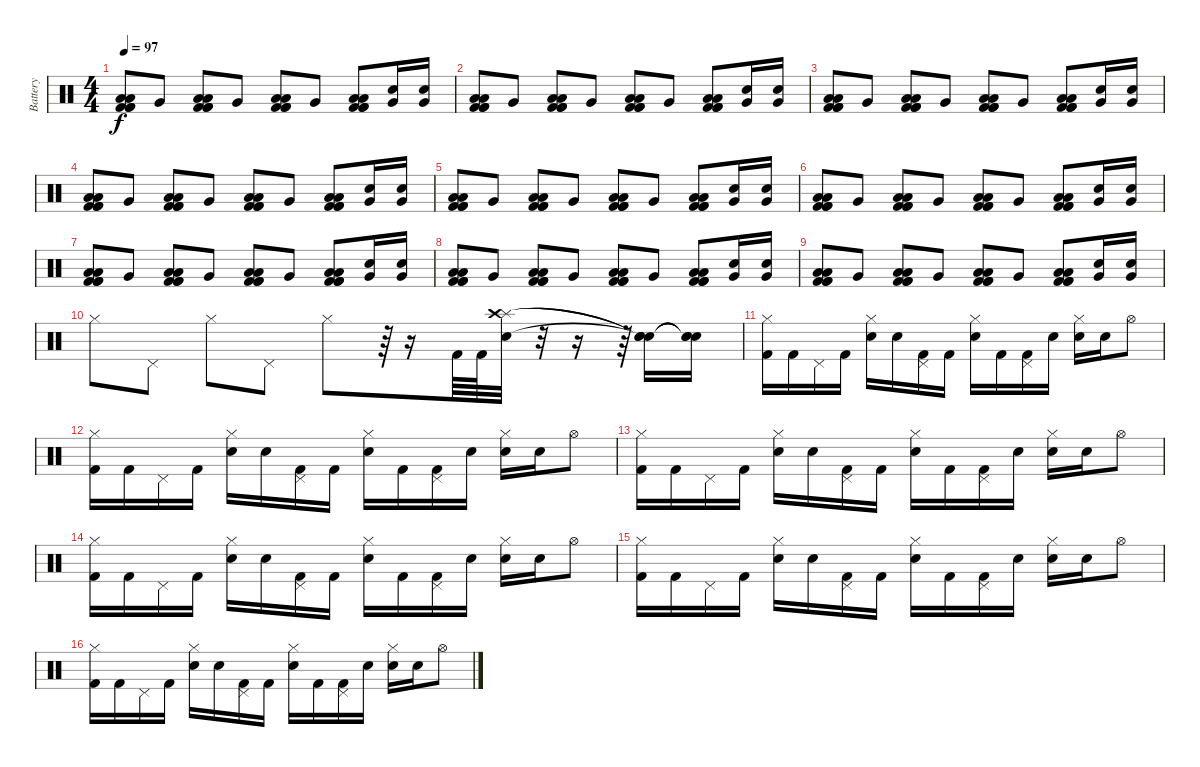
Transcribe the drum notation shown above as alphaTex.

\track ("Battery" "Battery") {instrument percussion}
\staff {score}
\articulation defaults
\ts (4 4)
\tempo 97
\clef neutral
\ks c
("Low Tom (hit)" "Kick (hit) 2" "Low Tom (hit)" "Kick (hit) 2" "Kick (hit) 2").8{dy f} "Very Low Tom (hit)".8 ("Low Floor Tom (hit)" "Kick (hit) 2" "Low Tom (hit)" "Kick (hit) 2" "Kick (hit) 2").8 "Very Low Tom (hit)".8 ("Low Tom (hit)" "Kick (hit) 2" "Low Tom (hit)" "Kick (hit) 2" "Kick (hit) 2").8 "Very Low Tom (hit)".8 ("Low Tom (hit)" "Kick (hit) 2" "Low Tom (hit)" "Kick (hit) 2" "Kick (hit) 2").8 ("Very Low Tom (hit)" "Snare (hit) 2").16 ("Very Low Tom (hit)" "Snare (hit) 2").16 |
("Low Tom (hit)" "Kick (hit) 2" "Low Tom (hit)" "Kick (hit) 2" "Kick (hit) 2").8 "Very Low Tom (hit)".8 ("Low Floor Tom (hit)" "Kick (hit) 2" "Low Tom (hit)" "Kick (hit) 2" "Kick (hit) 2").8 "Very Low Tom (hit)".8 ("Low Tom (hit)" "Kick (hit) 2" "Low Tom (hit)" "Kick (hit) 2" "Kick (hit) 2").8 "Very Low Tom (hit)".8 ("Low Tom (hit)" "Kick (hit) 2" "Low Tom (hit)" "Kick (hit) 2" "Kick (hit) 2").8 ("Very Low Tom (hit)" "Snare (hit) 2").16 ("Very Low Tom (hit)" "Snare (hit) 2").16 |
("Low Tom (hit)" "Kick (hit) 2" "Low Tom (hit)" "Kick (hit) 2" "Kick (hit) 2").8 "Very Low Tom (hit)".8 ("Low Floor Tom (hit)" "Kick (hit) 2" "Low Tom (hit)" "Kick (hit) 2" "Kick (hit) 2").8 "Very Low Tom (hit)".8 ("Low Tom (hit)" "Kick (hit) 2" "Low Tom (hit)" "Kick (hit) 2" "Kick (hit) 2").8 "Very Low Tom (hit)".8 ("Low Tom (hit)" "Kick (hit) 2" "Low Tom (hit)" "Kick (hit) 2" "Kick (hit) 2").8 ("Very Low Tom (hit)" "Snare (hit) 2").16 ("Very Low Tom (hit)" "Snare (hit) 2").16 |
("Low Tom (hit)" "Kick (hit) 2" "Low Tom (hit)" "Kick (hit) 2" "Kick (hit) 2").8 "Very Low Tom (hit)".8 ("Low Floor Tom (hit)" "Kick (hit) 2" "Low Tom (hit)" "Kick (hit) 2" "Kick (hit) 2").8 "Very Low Tom (hit)".8 ("Low Tom (hit)" "Kick (hit) 2" "Low Tom (hit)" "Kick (hit) 2" "Kick (hit) 2").8 "Very Low Tom (hit)".8 ("Low Tom (hit)" "Kick (hit) 2" "Low Tom (hit)" "Kick (hit) 2" "Kick (hit) 2").8 ("Very Low Tom (hit)" "Snare (hit) 2").16 ("Very Low Tom (hit)" "Snare (hit) 2").16 |
("Low Tom (hit)" "Kick (hit) 2" "Low Tom (hit)" "Kick (hit) 2" "Kick (hit) 2").8 "Very Low Tom (hit)".8 ("Low Floor Tom (hit)" "Kick (hit) 2" "Low Tom (hit)" "Kick (hit) 2" "Kick (hit) 2").8 "Very Low Tom (hit)".8 ("Low Tom (hit)" "Kick (hit) 2" "Low Tom (hit)" "Kick (hit) 2" "Kick (hit) 2").8 "Very Low Tom (hit)".8 ("Low Tom (hit)" "Kick (hit) 2" "Low Tom (hit)" "Kick (hit) 2" "Kick (hit) 2").8 ("Very Low Tom (hit)" "Snare (hit) 2").16 ("Very Low Tom (hit)" "Snare (hit) 2").16 |
("Low Tom (hit)" "Kick (hit) 2" "Low Tom (hit)" "Kick (hit) 2" "Kick (hit) 2").8 "Very Low Tom (hit)".8 ("Low Floor Tom (hit)" "Kick (hit) 2" "Low Tom (hit)" "Kick (hit) 2" "Kick (hit) 2").8 "Very Low Tom (hit)".8 ("Low Tom (hit)" "Kick (hit) 2" "Low Tom (hit)" "Kick (hit) 2" "Kick (hit) 2").8 "Very Low Tom (hit)".8 ("Low Tom (hit)" "Kick (hit) 2" "Low Tom (hit)" "Kick (hit) 2" "Kick (hit) 2").8 ("Very Low Tom (hit)" "Snare (hit) 2").16 ("Very Low Tom (hit)" "Snare (hit) 2").16 |
("Low Tom (hit)" "Kick (hit) 2" "Low Tom (hit)" "Kick (hit) 2" "Kick (hit) 2").8 "Very Low Tom (hit)".8 ("Low Floor Tom (hit)" "Kick (hit) 2" "Low Tom (hit)" "Kick (hit) 2" "Kick (hit) 2").8 "Very Low Tom (hit)".8 ("Low Tom (hit)" "Kick (hit) 2" "Low Tom (hit)" "Kick (hit) 2" "Kick (hit) 2").8 "Very Low Tom (hit)".8 ("Low Tom (hit)" "Kick (hit) 2" "Low Tom (hit)" "Kick (hit) 2" "Kick (hit) 2").8 ("Very Low Tom (hit)" "Snare (hit) 2").16 ("Very Low Tom (hit)" "Snare (hit) 2").16 |
("Low Tom (hit)" "Kick (hit) 2" "Low Tom (hit)" "Kick (hit) 2" "Kick (hit) 2").8 "Very Low Tom (hit)".8 ("Low Floor Tom (hit)" "Kick (hit) 2" "Low Tom (hit)" "Kick (hit) 2" "Kick (hit) 2").8 "Very Low Tom (hit)".8 ("Low Tom (hit)" "Kick (hit) 2" "Low Tom (hit)" "Kick (hit) 2" "Kick (hit) 2").8 "Very Low Tom (hit)".8 ("Low Tom (hit)" "Kick (hit) 2" "Low Tom (hit)" "Kick (hit) 2" "Kick (hit) 2").8 ("Very Low Tom (hit)" "Snare (hit) 2").16 ("Very Low Tom (hit)" "Snare (hit) 2").16 |
("Low Tom (hit)" "Kick (hit) 2" "Low Tom (hit)" "Kick (hit) 2" "Kick (hit) 2").8 "Very Low Tom (hit)".8 ("Low Floor Tom (hit)" "Kick (hit) 2" "Low Tom (hit)" "Kick (hit) 2" "Kick (hit) 2").8 "Very Low Tom (hit)".8 ("Low Tom (hit)" "Kick (hit) 2" "Low Tom (hit)" "Kick (hit) 2" "Kick (hit) 2").8 "Very Low Tom (hit)".8 ("Low Tom (hit)" "Kick (hit) 2" "Low Tom (hit)" "Kick (hit) 2" "Kick (hit) 2").8 ("Very Low Tom (hit)" "Snare (hit) 2").16 ("Very Low Tom (hit)" "Snare (hit) 2").16 |
"Hi-Hat (closed)".8 "Pedal Hi-Hat (hit)".8 "Hi-Hat (closed)".8 "Pedal Hi-Hat (hit)".8 "Hi-Hat (closed)".8 r.64 r.16 "Kick (hit) 2".64 "Kick (hit) 2".64 ("Snare (hit) 2" "Splash (hit)" "Crash high (hit)").32 r.32 r.16 r.64 ("Snare (hit)"{t} "Snare (hit)"{t} "Snare (hit)"{t}).16 ("Snare (hit)"{t} "Snare (hit)"{t} "Snare (hit)"{t}).16 |
("Kick (hit) 2" "Hi-Hat (closed)").16 "Kick (hit) 2".16 "Pedal Hi-Hat (hit)".16 "Kick (hit) 2".16 ("Snare (hit) 2" "Hi-Hat (closed)").16 "Snare (hit)".16 ("Kick (hit) 2" "Pedal Hi-Hat (hit)").16 "Kick (hit) 2".16 ("Snare (hit)" "Hi-Hat (closed)").16 "Kick (hit) 2".16 ("Kick (hit) 2" "Pedal Hi-Hat (hit)").16 "Snare (hit)".16 ("Snare (hit) 2" "Hi-Hat (closed)").16 "Snare (hit)".16 "Hi-Hat (open)".8 |
("Kick (hit) 2" "Hi-Hat (closed)").16 "Kick (hit) 2".16 "Pedal Hi-Hat (hit)".16 "Kick (hit) 2".16 ("Snare (hit) 2" "Hi-Hat (closed)").16 "Snare (hit)".16 ("Kick (hit) 2" "Pedal Hi-Hat (hit)").16 "Kick (hit) 2".16 ("Snare (hit)" "Hi-Hat (closed)").16 "Kick (hit) 2".16 ("Kick (hit) 2" "Pedal Hi-Hat (hit)").16 "Snare (hit)".16 ("Snare (hit) 2" "Hi-Hat (closed)").16 "Snare (hit)".16 "Hi-Hat (open)".8 |
("Kick (hit) 2" "Hi-Hat (closed)").16 "Kick (hit) 2".16 "Pedal Hi-Hat (hit)".16 "Kick (hit) 2".16 ("Snare (hit) 2" "Hi-Hat (closed)").16 "Snare (hit)".16 ("Kick (hit) 2" "Pedal Hi-Hat (hit)").16 "Kick (hit) 2".16 ("Snare (hit)" "Hi-Hat (closed)").16 "Kick (hit) 2".16 ("Kick (hit) 2" "Pedal Hi-Hat (hit)").16 "Snare (hit)".16 ("Snare (hit) 2" "Hi-Hat (closed)").16 "Snare (hit)".16 "Hi-Hat (open)".8 |
("Kick (hit) 2" "Hi-Hat (closed)").16 "Kick (hit) 2".16 "Pedal Hi-Hat (hit)".16 "Kick (hit) 2".16 ("Snare (hit) 2" "Hi-Hat (closed)").16 "Snare (hit)".16 ("Kick (hit) 2" "Pedal Hi-Hat (hit)").16 "Kick (hit) 2".16 ("Snare (hit)" "Hi-Hat (closed)").16 "Kick (hit) 2".16 ("Kick (hit) 2" "Pedal Hi-Hat (hit)").16 "Snare (hit)".16 ("Snare (hit) 2" "Hi-Hat (closed)").16 "Snare (hit)".16 "Hi-Hat (open)".8 |
("Kick (hit) 2" "Hi-Hat (closed)").16 "Kick (hit) 2".16 "Pedal Hi-Hat (hit)".16 "Kick (hit) 2".16 ("Snare (hit) 2" "Hi-Hat (closed)").16 "Snare (hit)".16 ("Kick (hit) 2" "Pedal Hi-Hat (hit)").16 "Kick (hit) 2".16 ("Snare (hit)" "Hi-Hat (closed)").16 "Kick (hit) 2".16 ("Kick (hit) 2" "Pedal Hi-Hat (hit)").16 "Snare (hit)".16 ("Snare (hit) 2" "Hi-Hat (closed)").16 "Snare (hit)".16 "Hi-Hat (open)".8 |
("Kick (hit) 2" "Hi-Hat (closed)").16 "Kick (hit) 2".16 "Pedal Hi-Hat (hit)".16 "Kick (hit) 2".16 ("Snare (hit) 2" "Hi-Hat (closed)").16 "Snare (hit)".16 ("Kick (hit) 2" "Pedal Hi-Hat (hit)").16 "Kick (hit) 2".16 ("Snare (hit)" "Hi-Hat (closed)").16 "Kick (hit) 2".16 ("Kick (hit) 2" "Pedal Hi-Hat (hit)").16 "Snare (hit)".16 ("Snare (hit) 2" "Hi-Hat (closed)").16 "Snare (hit)".16 "Hi-Hat (open)".8
